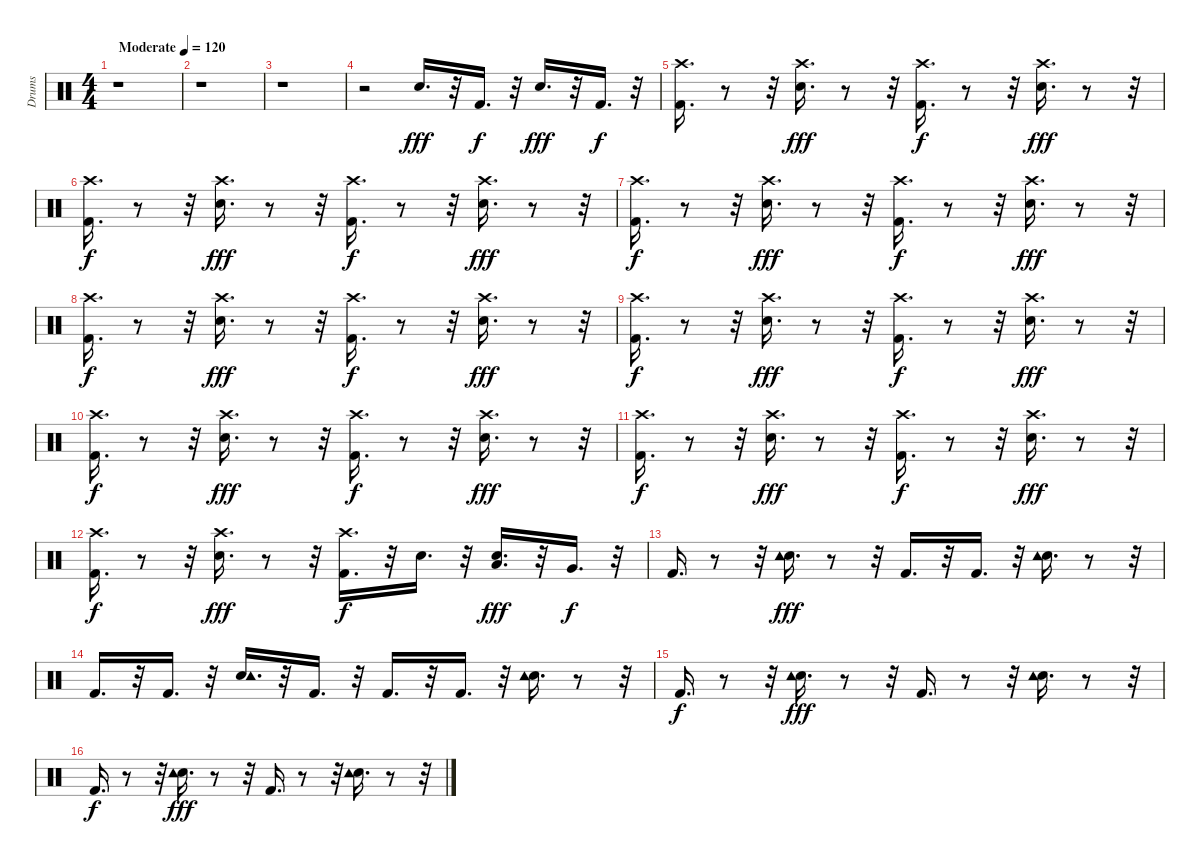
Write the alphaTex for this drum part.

\track ("Drums" "Drums") {instrument percussion}
\staff {score}
\articulation defaults
\ts (4 4)
\tempo (120 "Moderate")
\clef neutral
\ks c
r.1{dy fff} |
r.1 |
r.1 |
r.2 "Snare (hit) 2".16{d} r.32 "Kick (hit) 2".16{d dy f} r.32 "Snare (hit) 2".16{d dy fff} r.32 "Kick (hit) 2".16{d dy f} r.32 |
("Kick (hit) 2" "Crash high (hit)").16{d} r.8 r.32 ("Crash high (hit)" "Snare (hit) 2").16{d dy fff} r.8 r.32 ("Kick (hit) 2" "Crash high (hit)").16{d dy f} r.8 r.32 ("Crash high (hit)" "Snare (hit) 2").16{d dy fff} r.8 r.32 |
("Kick (hit) 2" "Crash high (hit)").16{d dy f} r.8 r.32 ("Crash high (hit)" "Snare (hit) 2").16{d dy fff} r.8 r.32 ("Kick (hit) 2" "Crash high (hit)").16{d dy f} r.8 r.32 ("Crash high (hit)" "Snare (hit) 2").16{d dy fff} r.8 r.32 |
("Kick (hit) 2" "Crash high (hit)").16{d dy f} r.8 r.32 ("Crash high (hit)" "Snare (hit) 2").16{d dy fff} r.8 r.32 ("Kick (hit) 2" "Crash high (hit)").16{d dy f} r.8 r.32 ("Crash high (hit)" "Snare (hit) 2").16{d dy fff} r.8 r.32 |
("Kick (hit) 2" "Crash high (hit)").16{d dy f} r.8 r.32 ("Crash high (hit)" "Snare (hit) 2").16{d dy fff} r.8 r.32 ("Kick (hit) 2" "Crash high (hit)").16{d dy f} r.8 r.32 ("Crash high (hit)" "Snare (hit) 2").16{d dy fff} r.8 r.32 |
("Kick (hit) 2" "Crash high (hit)").16{d dy f} r.8 r.32 ("Crash high (hit)" "Snare (hit) 2").16{d dy fff} r.8 r.32 ("Kick (hit) 2" "Crash high (hit)").16{d dy f} r.8 r.32 ("Crash high (hit)" "Snare (hit) 2").16{d dy fff} r.8 r.32 |
("Kick (hit) 2" "Crash high (hit)").16{d dy f} r.8 r.32 ("Crash high (hit)" "Snare (hit) 2").16{d dy fff} r.8 r.32 ("Kick (hit) 2" "Crash high (hit)").16{d dy f} r.8 r.32 ("Crash high (hit)" "Snare (hit) 2").16{d dy fff} r.8 r.32 |
("Kick (hit) 2" "Crash high (hit)").16{d dy f} r.8 r.32 ("Crash high (hit)" "Snare (hit) 2").16{d dy fff} r.8 r.32 ("Kick (hit) 2" "Crash high (hit)").16{d dy f} r.8 r.32 ("Crash high (hit)" "Snare (hit) 2").16{d dy fff} r.8 r.32 |
("Kick (hit) 2" "Crash high (hit)").16{d dy f} r.8 r.32 ("Crash high (hit)" "Snare (hit) 2").16{d dy fff} r.8 r.32 ("Kick (hit) 2" "Crash high (hit)").16{d dy f} r.32 "Snare (hit) 2".16{d} r.32 ("Snare (hit) 2" "Low Tom (hit)").16{d dy fff} r.32 "Very Low Tom (hit)".16{d dy f} r.32 |
"Kick (hit) 2".16{d} r.8 r.32 ("Snare (hit) 2" "Tambourine (hit)").16{d dy fff} r.8 r.32 "Kick (hit) 2".16{d} r.32 "Kick (hit) 2".16{d} r.32 ("Snare (hit) 2" "Tambourine (hit)").16{d} r.8 r.32 |
"Kick (hit) 2".16{d} r.32 "Kick (hit) 2".16{d} r.32 ("Snare (hit) 2" "Tambourine (hit)").16{d} r.32 "Kick (hit) 2".16{d} r.32 "Kick (hit) 2".16{d} r.32 "Kick (hit) 2".16{d} r.32 ("Snare (hit) 2" "Tambourine (hit)").16{d} r.8 r.32 |
"Kick (hit) 2".16{d dy f} r.8 r.32 ("Snare (hit) 2" "Tambourine (hit)").16{d dy fff} r.8 r.32 "Kick (hit) 2".16{d} r.8 r.32 ("Snare (hit) 2" "Tambourine (hit)").16{d} r.8 r.32 |
"Kick (hit) 2".16{d dy f} r.8 r.32 ("Snare (hit) 2" "Tambourine (hit)").16{d dy fff} r.8 r.32 "Kick (hit) 2".16{d} r.8 r.32 ("Snare (hit) 2" "Tambourine (hit)").16{d} r.8 r.32
